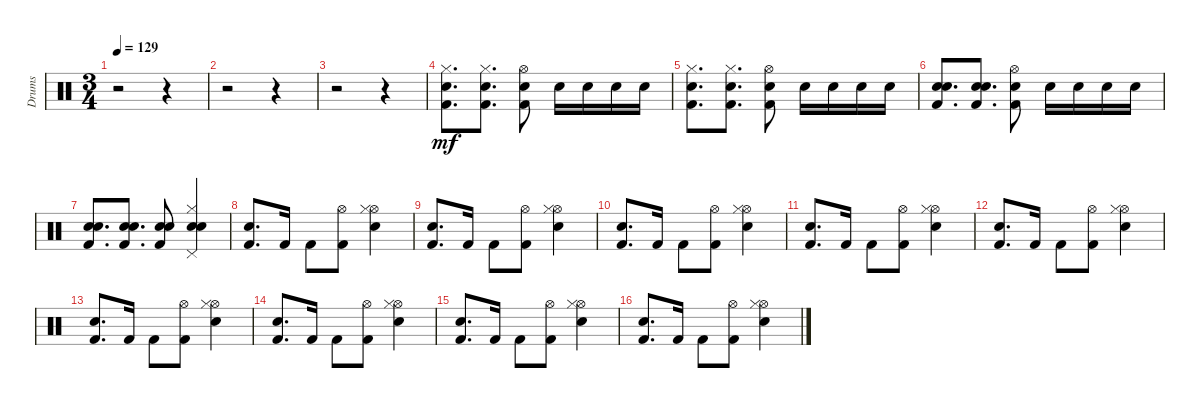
\track ("Drums" "Drums") {instrument percussion}
\staff {score}
\articulation defaults
\ts (3 4)
\tempo 129
\clef neutral
\ks c
r.2{dy ff} r.4 |
r.2 r.4 |
r.2 r.4 |
("Kick (hit) 2" "Snare (hit) 2" "Hi-Hat (closed)").8{d dy mf} ("Kick (hit) 2" "Snare (hit) 2" "Hi-Hat (closed)").8{d} ("Kick (hit) 2" "Snare (hit) 2" "Hi-Hat (open)").8 "Snare (hit) 2".16 "Snare (hit) 2".16 "Snare (hit) 2".16 "Snare (hit) 2".16 |
("Kick (hit) 2" "Snare (hit) 2" "Hi-Hat (closed)").8{d} ("Kick (hit) 2" "Snare (hit) 2" "Hi-Hat (closed)").8{d} ("Kick (hit) 2" "Snare (hit) 2" "Hi-Hat (open)").8 "Snare (hit) 2".16 "Snare (hit) 2".16 "Snare (hit) 2".16 "Snare (hit) 2".16 |
("Kick (hit) 2" "Snare (hit) 2" "Electric Snare (hit)").8{d} ("Kick (hit) 2" "Snare (hit) 2" "Electric Snare (hit)").8{d} ("Kick (hit) 2" "Snare (hit) 2" "Hi-Hat (open)").8 "Snare (hit) 2".16 "Snare (hit) 2".16 "Snare (hit) 2".16 "Snare (hit) 2".16 |
("Kick (hit) 2" "Snare (hit) 2" "Electric Snare (hit)").8{d} ("Kick (hit) 2" "Snare (hit) 2" "Electric Snare (hit)").8{d} ("Kick (hit) 2" "Snare (hit) 2" "Electric Snare (hit)").8 ("Electric Snare (hit)" "Snare (hit) 2" "Hi-Hat (closed)" "Pedal Hi-Hat (hit)").4 |
("Snare (hit) 2" "Kick (hit) 2").8{d} "Kick (hit) 2".16 "Kick (hit) 2".8 ("Hi-Hat (open)" "Kick (hit) 2").8 ("Electric Snare (hit)" "Hi-Hat (open)" "Hi-Hat (closed)").4 |
("Snare (hit) 2" "Kick (hit) 2").8{d} "Kick (hit) 2".16 "Kick (hit) 2".8 ("Hi-Hat (open)" "Kick (hit) 2").8 ("Electric Snare (hit)" "Hi-Hat (open)" "Hi-Hat (closed)").4 |
("Snare (hit) 2" "Kick (hit) 2").8{d} "Kick (hit) 2".16 "Kick (hit) 2".8 ("Hi-Hat (open)" "Kick (hit) 2").8 ("Electric Snare (hit)" "Hi-Hat (open)" "Hi-Hat (closed)").4 |
("Snare (hit) 2" "Kick (hit) 2").8{d} "Kick (hit) 2".16 "Kick (hit) 2".8 ("Hi-Hat (open)" "Kick (hit) 2").8 ("Electric Snare (hit)" "Hi-Hat (open)" "Hi-Hat (closed)").4 |
("Snare (hit) 2" "Kick (hit) 2").8{d} "Kick (hit) 2".16 "Kick (hit) 2".8 ("Hi-Hat (open)" "Kick (hit) 2").8 ("Electric Snare (hit)" "Hi-Hat (open)" "Hi-Hat (closed)").4 |
("Snare (hit) 2" "Kick (hit) 2").8{d} "Kick (hit) 2".16 "Kick (hit) 2".8 ("Hi-Hat (open)" "Kick (hit) 2").8 ("Electric Snare (hit)" "Hi-Hat (open)" "Hi-Hat (closed)").4 |
("Snare (hit) 2" "Kick (hit) 2").8{d} "Kick (hit) 2".16 "Kick (hit) 2".8 ("Hi-Hat (open)" "Kick (hit) 2").8 ("Electric Snare (hit)" "Hi-Hat (open)" "Hi-Hat (closed)").4 |
("Snare (hit) 2" "Kick (hit) 2").8{d} "Kick (hit) 2".16 "Kick (hit) 2".8 ("Hi-Hat (open)" "Kick (hit) 2").8 ("Electric Snare (hit)" "Hi-Hat (open)" "Hi-Hat (closed)").4 |
("Snare (hit) 2" "Kick (hit) 2").8{d} "Kick (hit) 2".16 "Kick (hit) 2".8 ("Hi-Hat (open)" "Kick (hit) 2").8 ("Electric Snare (hit)" "Hi-Hat (open)" "Hi-Hat (closed)").4
